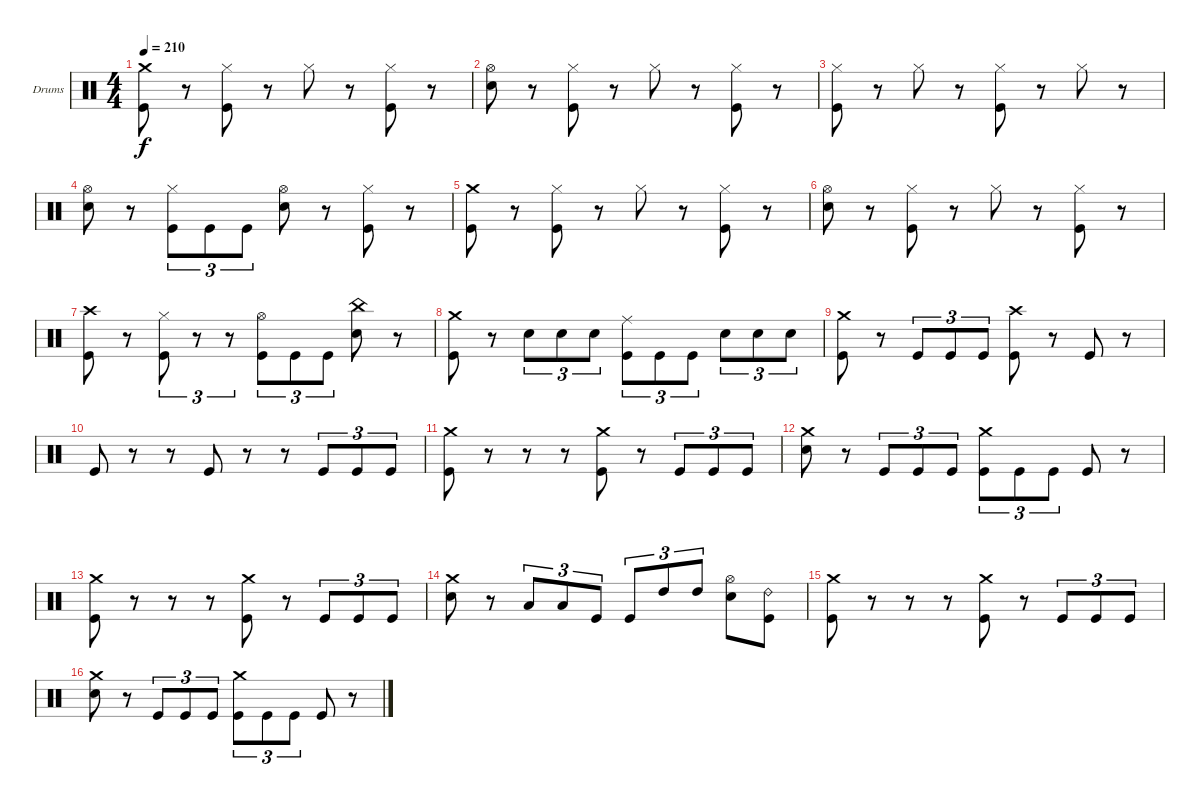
\bracketExtendMode groupsimilarinstruments
\firstSystemTrackNameOrientation horizontal
\otherSystemsTrackNameOrientation horizontal
\track ("Drumkit" "Drums") {instrument percussion}
\staff {score}
\articulation defaults
\ts (4 4)
\section ("" "")
\tempo 210
\clef neutral
\ks c
("Crash medium (hit)" "Kick (hit)").8{dy f} r.8 ("Hi-Hat (closed)" "Kick (hit)").8 r.8 "Hi-Hat (closed)".8 r.8 ("Hi-Hat (closed)" "Kick (hit)").8 r.8 |
("Hi-Hat (open)" "Snare (hit) 2").8 r.8 ("Hi-Hat (closed)" "Kick (hit)").8 r.8 "Hi-Hat (closed)".8 r.8 ("Hi-Hat (closed)" "Kick (hit)").8 r.8 |
("Hi-Hat (closed)" "Kick (hit)").8 r.8 "Hi-Hat (closed)".8 r.8 ("Hi-Hat (closed)" "Kick (hit)").8 r.8 "Hi-Hat (closed)".8 r.8 |
("Hi-Hat (open)" "Snare (hit) 2").8 r.8 ("Hi-Hat (closed)" "Kick (hit)").8{tu (3 2)} "Kick (hit)".8{tu (3 2)} "Kick (hit)".8{tu (3 2)} ("Hi-Hat (open)" "Snare (hit) 2").8 r.8 ("Hi-Hat (closed)" "Kick (hit)").8 r.8 |
("Crash medium (hit)" "Kick (hit)").8 r.8 ("Hi-Hat (closed)" "Kick (hit)").8 r.8 "Hi-Hat (closed)".8 r.8 ("Hi-Hat (closed)" "Kick (hit)").8 r.8 |
("Hi-Hat (open)" "Snare (hit) 2").8 r.8 ("Hi-Hat (closed)" "Kick (hit)").8 r.8 "Hi-Hat (closed)".8 r.8 ("Hi-Hat (closed)" "Kick (hit)").8 r.8 |
("Crash high (hit)" "Kick (hit)").8 r.8 ("Hi-Hat (closed)" "Kick (hit)").8{tu (3 2)} r.8{tu (3 2)} r.8{tu (3 2)} ("Hi-Hat (open)" "Kick (hit)").8{tu (3 2)} "Kick (hit)".8{tu (3 2)} "Kick (hit)".8{tu (3 2)} ("China (hit)" "Snare (hit) 2").8 r.8 |
("Crash medium (hit)" "Kick (hit)").8 r.8 "Snare (hit) 2".8{tu (3 2)} "Snare (hit) 2".8{tu (3 2)} "Snare (hit) 2".8{tu (3 2)} ("Ride (middle)" "Kick (hit)").8{tu (3 2)} "Kick (hit)".8{tu (3 2)} "Kick (hit)".8{tu (3 2)} "Snare (hit) 2".8{tu (3 2)} "Snare (hit) 2".8{tu (3 2)} "Snare (hit) 2".8{tu (3 2)} |
("Crash medium (hit)" "Kick (hit)").8 r.8 "Kick (hit)".8{tu (3 2)} "Kick (hit)".8{tu (3 2)} "Kick (hit)".8{tu (3 2)} ("Crash high (hit)" "Kick (hit)").8 r.8 "Kick (hit)".8 r.8 |
"Kick (hit)".8 r.8 r.8 "Kick (hit)".8 r.8 r.8 "Kick (hit)".8{tu (3 2)} "Kick (hit)".8{tu (3 2)} "Kick (hit)".8{tu (3 2)} |
("Crash medium (hit)" "Kick (hit)").8 r.8 r.8 r.8 ("Crash medium (hit)" "Kick (hit)").8 r.8 "Kick (hit)".8{tu (3 2)} "Kick (hit)".8{tu (3 2)} "Kick (hit)".8{tu (3 2)} |
("Crash medium (hit)" "Snare (hit) 2").8 r.8 "Kick (hit)".8{tu (3 2)} "Kick (hit)".8{tu (3 2)} "Kick (hit)".8{tu (3 2)} ("Crash medium (hit)" "Kick (hit)").8{tu (3 2)} "Kick (hit)".8{tu (3 2)} "Kick (hit)".8{tu (3 2)} "Kick (hit)".8 r.8 |
("Crash medium (hit)" "Kick (hit)").8 r.8 r.8 r.8 ("Crash medium (hit)" "Kick (hit)").8 r.8 "Kick (hit)".8{tu (3 2)} "Kick (hit)".8{tu (3 2)} "Kick (hit)".8{tu (3 2)} |
("Crash medium (hit)" "Snare (hit) 2").8 r.8 "Low Tom (hit)".8{tu (3 2)} "Low Tom (hit)".8{tu (3 2)} "Kick (hit)".8{tu (3 2)} "Kick (hit)".8{tu (3 2)} "High Tom (hit)".8{tu (3 2)} "High Tom (hit)".8{tu (3 2)} ("Hi-Hat (open)" "Snare (hit) 2").8 ("Ride (bell) 2" "Kick (hit)").8 |
("Crash medium (hit)" "Kick (hit)").8 r.8 r.8 r.8 ("Crash medium (hit)" "Kick (hit)").8 r.8 "Kick (hit)".8{tu (3 2)} "Kick (hit)".8{tu (3 2)} "Kick (hit)".8{tu (3 2)} |
("Crash medium (hit)" "Snare (hit) 2").8 r.8 "Kick (hit)".8{tu (3 2)} "Kick (hit)".8{tu (3 2)} "Kick (hit)".8{tu (3 2)} ("Crash medium (hit)" "Kick (hit)").8{tu (3 2)} "Kick (hit)".8{tu (3 2)} "Kick (hit)".8{tu (3 2)} "Kick (hit)".8 r.8
